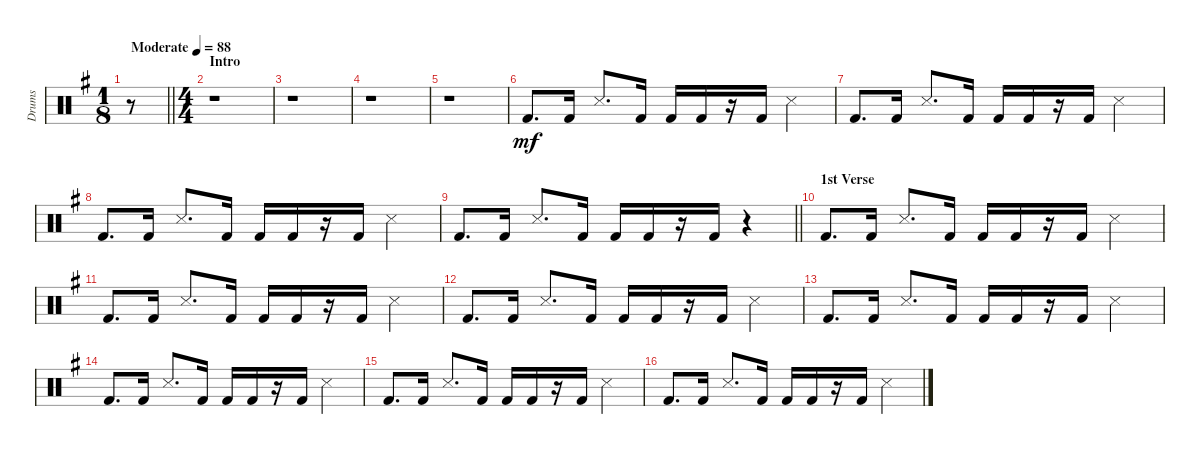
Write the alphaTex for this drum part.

\track ("Drums" "Drums") {instrument percussion}
\staff {score}
\articulation defaults
\ts (1 8)
\tempo (88 "Moderate")
\clef neutral
\barLineRight lightlight
\ks eminor
r.8{dy mf} |
\ts (4 4)
\section ("" "Intro")
r.1 |
r.1 |
r.1 |
r.1 |
"Kick (hit) 2".8{d} "Kick (hit) 2".16 "Snare (side stick) 3".8{d} "Kick (hit) 2".16 "Kick (hit) 2".16 "Kick (hit) 2".16 r.16 "Kick (hit) 2".16 "Snare (side stick) 3".4 |
"Kick (hit) 2".8{d} "Kick (hit) 2".16 "Snare (side stick) 3".8{d} "Kick (hit) 2".16 "Kick (hit) 2".16 "Kick (hit) 2".16 r.16 "Kick (hit) 2".16 "Snare (side stick) 3".4 |
"Kick (hit) 2".8{d} "Kick (hit) 2".16 "Snare (side stick) 3".8{d} "Kick (hit) 2".16 "Kick (hit) 2".16 "Kick (hit) 2".16 r.16 "Kick (hit) 2".16 "Snare (side stick) 3".4 |
\barLineRight lightlight "Kick (hit) 2".8{d} "Kick (hit) 2".16 "Snare (side stick) 3".8{d} "Kick (hit) 2".16 "Kick (hit) 2".16 "Kick (hit) 2".16
r.16 "Kick (hit) 2".16 r.4 |
\section ("" "1st Verse")
"Kick (hit) 2".8{d} "Kick (hit) 2".16 "Snare (side stick) 3".8{d} "Kick (hit) 2".16 "Kick (hit) 2".16 "Kick (hit) 2".16 r.16 "Kick (hit) 2".16 "Snare (side stick) 3".4 |
"Kick (hit) 2".8{d} "Kick (hit) 2".16 "Snare (side stick) 3".8{d} "Kick (hit) 2".16 "Kick (hit) 2".16 "Kick (hit) 2".16 r.16 "Kick (hit) 2".16 "Snare (side stick) 3".4 |
"Kick (hit) 2".8{d} "Kick (hit) 2".16 "Snare (side stick) 3".8{d} "Kick (hit) 2".16 "Kick (hit) 2".16 "Kick (hit) 2".16 r.16 "Kick (hit) 2".16 "Snare (side stick) 3".4 |
"Kick (hit) 2".8{d} "Kick (hit) 2".16 "Snare (side stick) 3".8{d} "Kick (hit) 2".16 "Kick (hit) 2".16 "Kick (hit) 2".16 r.16 "Kick (hit) 2".16 "Snare (side stick) 3".4 |
"Kick (hit) 2".8{d} "Kick (hit) 2".16 "Snare (side stick) 3".8{d} "Kick (hit) 2".16 "Kick (hit) 2".16 "Kick (hit) 2".16 r.16 "Kick (hit) 2".16 "Snare (side stick) 3".4 |
"Kick (hit) 2".8{d} "Kick (hit) 2".16 "Snare (side stick) 3".8{d} "Kick (hit) 2".16 "Kick (hit) 2".16 "Kick (hit) 2".16 r.16 "Kick (hit) 2".16 "Snare (side stick) 3".4 |
"Kick (hit) 2".8{d} "Kick (hit) 2".16 "Snare (side stick) 3".8{d} "Kick (hit) 2".16 "Kick (hit) 2".16 "Kick (hit) 2".16 r.16 "Kick (hit) 2".16 "Snare (side stick) 3".4
